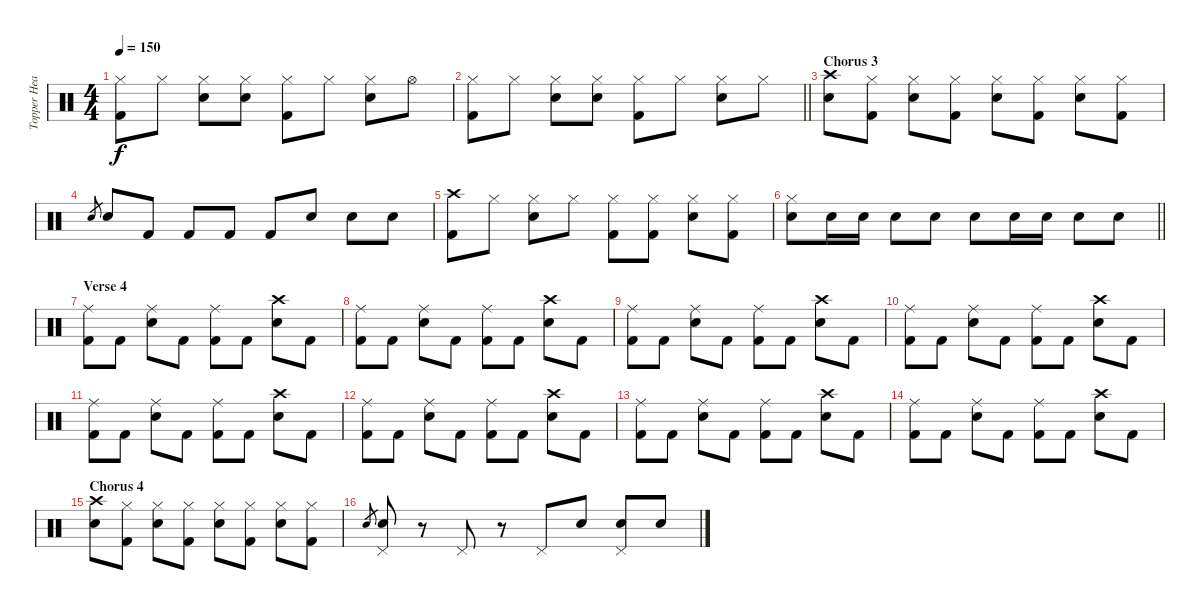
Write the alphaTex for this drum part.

\track ("Topper Headon - Drums" "Topper Hea") {instrument percussion}
\staff {score}
\articulation defaults
\ts (4 4)
\tempo 150
\clef neutral
\ks c
("Hi-Hat (closed)" "Kick (hit) 2").8{dy f} "Hi-Hat (closed)".8 ("Hi-Hat (closed)" "Electric Snare (hit)").8 ("Hi-Hat (closed)" "Electric Snare (hit)").8 ("Hi-Hat (closed)" "Kick (hit) 2").8 "Hi-Hat (closed)".8 ("Hi-Hat (closed)" "Electric Snare (hit)").8 "Hi-Hat (open)".8 |
\barLineRight lightlight
("Hi-Hat (closed)" "Kick (hit) 2").8 "Hi-Hat (closed)".8 ("Hi-Hat (closed)" "Electric Snare (hit)").8 ("Hi-Hat (closed)" "Electric Snare (hit)").8 ("Hi-Hat (closed)" "Kick (hit) 2").8 "Hi-Hat (closed)".8 ("Hi-Hat (closed)" "Electric Snare (hit)").8 "Hi-Hat (closed)".8 |
\section ("" "Chorus 3")
("Crash high (hit)" "Electric Snare (hit)").8 ("Hi-Hat (closed)" "Kick (hit) 2").8 ("Hi-Hat (closed)" "Electric Snare (hit)").8 ("Hi-Hat (closed)" "Kick (hit) 2").8 ("Hi-Hat (closed)" "Electric Snare (hit)").8 ("Hi-Hat (closed)" "Kick (hit) 2").8 ("Hi-Hat (closed)" "Electric Snare (hit)").8 ("Hi-Hat (closed)" "Kick (hit) 2").8 |
"Electric Snare (hit)".8{gr} "Electric Snare (hit)".8 "Kick (hit) 2".8 "Kick (hit) 2".8 "Kick (hit) 2".8 "Kick (hit) 2".8 "Electric Snare (hit)".8 "Electric Snare (hit)".8 "Electric Snare (hit)".8 |
("Crash high (hit)" "Kick (hit) 2").8 "Hi-Hat (closed)".8 ("Hi-Hat (closed)" "Electric Snare (hit)").8 "Hi-Hat (closed)".8 ("Hi-Hat (closed)" "Kick (hit) 2").8 ("Hi-Hat (closed)" "Kick (hit) 2").8 ("Hi-Hat (closed)" "Electric Snare (hit)").8 ("Hi-Hat (closed)" "Kick (hit) 2").8 |
\barLineRight lightlight
("Hi-Hat (closed)" "Electric Snare (hit)").8 "Electric Snare (hit)".16 "Electric Snare (hit)".16 "Electric Snare (hit)".8 "Electric Snare (hit)".8 "Electric Snare (hit)".8 "Electric Snare (hit)".16 "Electric Snare (hit)".16 "Electric Snare (hit)".8 "Electric Snare (hit)".8 |
\section ("" "Verse 4")
("Ride (middle)" "Kick (hit) 2").8 "Kick (hit) 2".8 ("Ride (middle)" "Electric Snare (hit)").8 "Kick (hit) 2".8 ("Ride (middle)" "Kick (hit) 2").8 "Kick (hit) 2".8 ("Crash high (hit)" "Electric Snare (hit)").8 "Kick (hit) 2".8 |
("Ride (middle)" "Kick (hit) 2").8 "Kick (hit) 2".8 ("Ride (middle)" "Electric Snare (hit)").8 "Kick (hit) 2".8 ("Ride (middle)" "Kick (hit) 2").8 "Kick (hit) 2".8 ("Crash high (hit)" "Electric Snare (hit)").8 "Kick (hit) 2".8 |
("Ride (middle)" "Kick (hit) 2").8 "Kick (hit) 2".8 ("Ride (middle)" "Electric Snare (hit)").8 "Kick (hit) 2".8 ("Ride (middle)" "Kick (hit) 2").8 "Kick (hit) 2".8 ("Crash high (hit)" "Electric Snare (hit)").8 "Kick (hit) 2".8 |
("Ride (middle)" "Kick (hit) 2").8 "Kick (hit) 2".8 ("Ride (middle)" "Electric Snare (hit)").8 "Kick (hit) 2".8 ("Ride (middle)" "Kick (hit) 2").8 "Kick (hit) 2".8 ("Crash high (hit)" "Electric Snare (hit)").8 "Kick (hit) 2".8 |
("Ride (middle)" "Kick (hit) 2").8 "Kick (hit) 2".8 ("Ride (middle)" "Electric Snare (hit)").8 "Kick (hit) 2".8 ("Ride (middle)" "Kick (hit) 2").8 "Kick (hit) 2".8 ("Crash high (hit)" "Electric Snare (hit)").8 "Kick (hit) 2".8 |
("Ride (middle)" "Kick (hit) 2").8 "Kick (hit) 2".8 ("Ride (middle)" "Electric Snare (hit)").8 "Kick (hit) 2".8 ("Ride (middle)" "Kick (hit) 2").8 "Kick (hit) 2".8 ("Crash high (hit)" "Electric Snare (hit)").8 "Kick (hit) 2".8 |
("Ride (middle)" "Kick (hit) 2").8 "Kick (hit) 2".8 ("Ride (middle)" "Electric Snare (hit)").8 "Kick (hit) 2".8 ("Ride (middle)" "Kick (hit) 2").8 "Kick (hit) 2".8 ("Crash high (hit)" "Electric Snare (hit)").8 "Kick (hit) 2".8 |
("Ride (middle)" "Kick (hit) 2").8 "Kick (hit) 2".8 ("Ride (middle)" "Electric Snare (hit)").8 "Kick (hit) 2".8 ("Ride (middle)" "Kick (hit) 2").8 "Kick (hit) 2".8 ("Crash high (hit)" "Electric Snare (hit)").8 "Kick (hit) 2".8 |
\section ("" "Chorus 4")
("Crash high (hit)" "Electric Snare (hit)").8 ("Hi-Hat (closed)" "Kick (hit) 2").8 ("Hi-Hat (closed)" "Electric Snare (hit)").8 ("Hi-Hat (closed)" "Kick (hit) 2").8 ("Hi-Hat (closed)" "Electric Snare (hit)").8 ("Hi-Hat (closed)" "Kick (hit) 2").8 ("Hi-Hat (closed)" "Electric Snare (hit)").8 ("Hi-Hat (closed)" "Kick (hit) 2").8 |
"Electric Snare (hit)".8{gr} ("Pedal Hi-Hat (hit)" "Electric Snare (hit)").8 r.8 "Pedal Hi-Hat (hit)".8 r.8 "Pedal Hi-Hat (hit)".8 "Electric Snare (hit)".8 ("Pedal Hi-Hat (hit)" "Electric Snare (hit)").8 "Electric Snare (hit)".8
